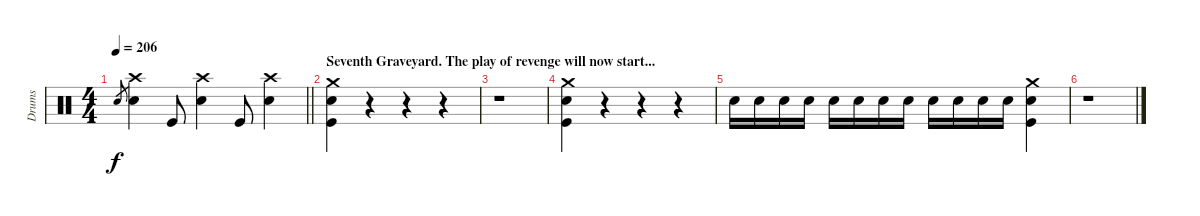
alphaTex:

\track ("Drums" "Drums") {instrument percussion}
\staff {score}
\articulation defaults
\ts (4 4)
\tempo 206
\clef neutral
\barLineRight lightlight
\ks c "Electric Snare (hit)".8{gr dy f}
("Crash high (hit)" "Electric Snare (hit)").4 "Kick (hit)".8 ("Crash high (hit)" "Electric Snare (hit)").4 "Kick (hit)".8 ("Crash high (hit)" "Electric Snare (hit)").4 |
\section ("" "Seventh Graveyard. The play of revenge will now start...")
("Crash medium (hit)" "Electric Snare (hit)" "Kick (hit)").4 r.4 r.4 r.4 |
r.1 |
("Crash medium (hit)" "Electric Snare (hit)" "Kick (hit)").4 r.4 r.4 r.4{volume 1} |
"Electric Snare (hit)".16{volume 11} "Electric Snare (hit)".16 "Electric Snare (hit)".16 "Electric Snare (hit)".16 "Electric Snare (hit)".16 "Electric Snare (hit)".16 "Electric Snare (hit)".16 "Electric Snare (hit)".16 "Electric Snare (hit)".16 "Electric Snare (hit)".16 "Electric Snare (hit)".16 "Electric Snare (hit)".16 ("Crash medium (hit)" "Electric Snare (hit)" "Kick (hit)").4 |
r.1
